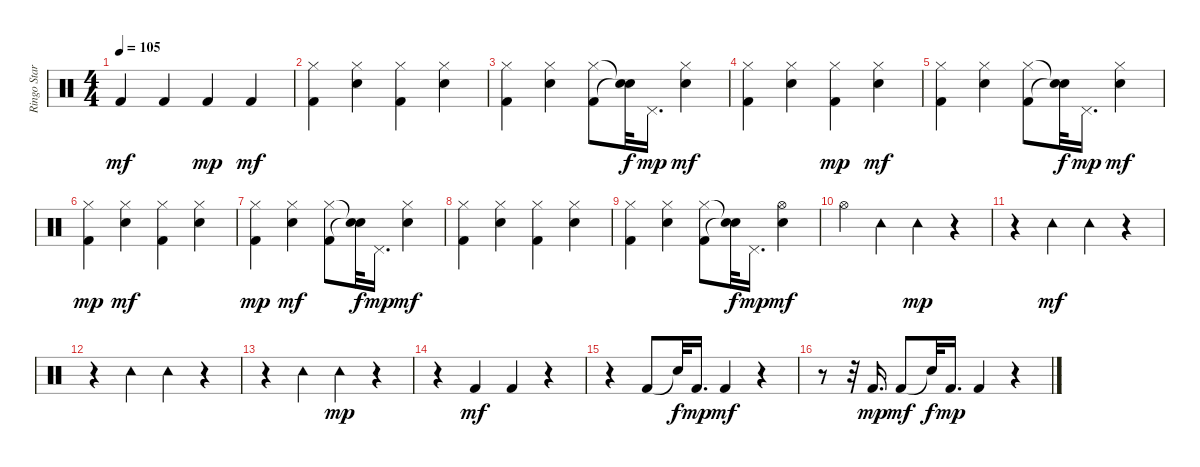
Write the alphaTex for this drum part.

\track ("Ringo Starr" "Ringo Star") {instrument percussion}
\staff {score}
\articulation defaults
\ts (4 4)
\tempo 105
\clef neutral
\ks c "Kick (hit) 2".4{dy mf} "Kick (hit) 2".4 "Kick (hit) 2".4{dy mp} "Kick (hit) 2".4{dy mf}
|
("Kick (hit) 2" "Hi-Hat (closed)").4 ("Snare (hit) 2" "Hi-Hat (closed)").4 ("Kick (hit) 2" "Hi-Hat (closed)").4 ("Snare (hit) 2" "Hi-Hat (closed)").4 |
("Kick (hit) 2" "Hi-Hat (closed)").4 ("Snare (hit) 2" "Hi-Hat (closed)").4 ("Kick (hit) 2" "Hi-Hat (closed)").8 ("Snare (hit)"{t} "Snare (hit)"{t}).32{dy f} "Pedal Hi-Hat (hit)".16{d dy mp} ("Snare (hit) 2" "Hi-Hat (closed)").4{dy mf} |
("Kick (hit) 2" "Hi-Hat (closed)").4 ("Snare (hit) 2" "Hi-Hat (closed)").4 ("Kick (hit) 2" "Hi-Hat (closed)").4{dy mp} ("Snare (hit) 2" "Hi-Hat (closed)").4{dy mf} |
("Kick (hit) 2" "Hi-Hat (closed)").4 ("Snare (hit) 2" "Hi-Hat (closed)").4 ("Kick (hit) 2" "Hi-Hat (closed)").8 ("Snare (hit)"{t} "Snare (hit)"{t}).32{dy f} "Pedal Hi-Hat (hit)".16{d dy mp} ("Snare (hit) 2" "Hi-Hat (closed)").4{dy mf} |
("Kick (hit) 2" "Hi-Hat (closed)").4{dy mp} ("Snare (hit) 2" "Hi-Hat (closed)").4{dy mf} ("Kick (hit) 2" "Hi-Hat (closed)").4 ("Snare (hit) 2" "Hi-Hat (closed)").4 |
("Kick (hit) 2" "Hi-Hat (closed)").4{dy mp} ("Snare (hit) 2" "Hi-Hat (closed)").4{dy mf} ("Kick (hit) 2" "Hi-Hat (closed)").8 ("Snare (hit)"{t} "Snare (hit)"{t}).32{dy f} "Pedal Hi-Hat (hit)".16{d dy mp} ("Snare (hit) 2" "Hi-Hat (closed)").4{dy mf} |
("Kick (hit) 2" "Hi-Hat (closed)").4 ("Snare (hit) 2" "Hi-Hat (closed)").4 ("Kick (hit) 2" "Hi-Hat (closed)").4 ("Snare (hit) 2" "Hi-Hat (closed)").4 |
("Kick (hit) 2" "Hi-Hat (closed)").4 ("Snare (hit) 2" "Hi-Hat (closed)").4 ("Kick (hit) 2" "Hi-Hat (closed)").8 ("Snare (hit)"{t} "Snare (hit)"{t}).32{dy f} "Pedal Hi-Hat (hit)".16{d dy mp} ("Snare (hit) 2" "Hi-Hat (open)").4{dy mf} |
"Hi-Hat (open)".4 "Tambourine (hit)".4 "Tambourine (hit)".4{dy mp} r.4 |
r.4 "Tambourine (hit)".4{dy mf} "Tambourine (hit)".4 r.4 |
r.4 "Tambourine (hit)".4 "Tambourine (hit)".4 r.4 |
r.4 "Tambourine (hit)".4 "Tambourine (hit)".4{dy mp} r.4 |
r.4 "Kick (hit) 2".4{dy mf} "Kick (hit) 2".4 r.4 |
r.4 "Kick (hit) 2".8 "Snare (hit)"{t}.32{dy f} "Kick (hit) 2".16{d dy mp} "Kick (hit) 2".4{dy mf} r.4 |
r.8 r.32 "Kick (hit) 2".16{d dy mp} "Kick (hit) 2".8{dy mf} "Snare (hit)"{t}.32{dy f} "Kick (hit) 2".16{d dy mp} "Kick (hit) 2".4 r.4
